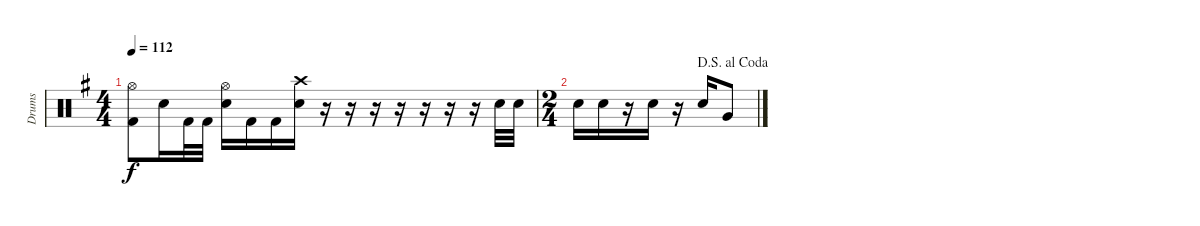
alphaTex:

\track ("Drums" "Drums") {instrument percussion}
\staff {score}
\articulation defaults
\ts (4 4)
\tempo 112
\clef neutral
\ks g
("Hi-Hat (open)" "Kick (hit) 2").8{dy f} "Electric Snare (hit)".16 "Kick (hit) 2".32 "Kick (hit) 2".32 ("Hi-Hat (open)" "Electric Snare (hit)").16 "Kick (hit) 2".16 "Kick (hit) 2".16 ("Crash high (hit)" "Electric Snare (hit)").16 r.16 r.16 r.16 r.16 r.16 r.16 r.16 "Electric Snare (hit)".32 "Electric Snare (hit)".32 |
\ts (2 4)
\jump dalsegnoalcoda "Electric Snare (hit)".16 "Electric Snare (hit)".16
r.16 "Electric Snare (hit)".16 r.16 "Electric Snare (hit)".16 "Very Low Tom (hit)".8
